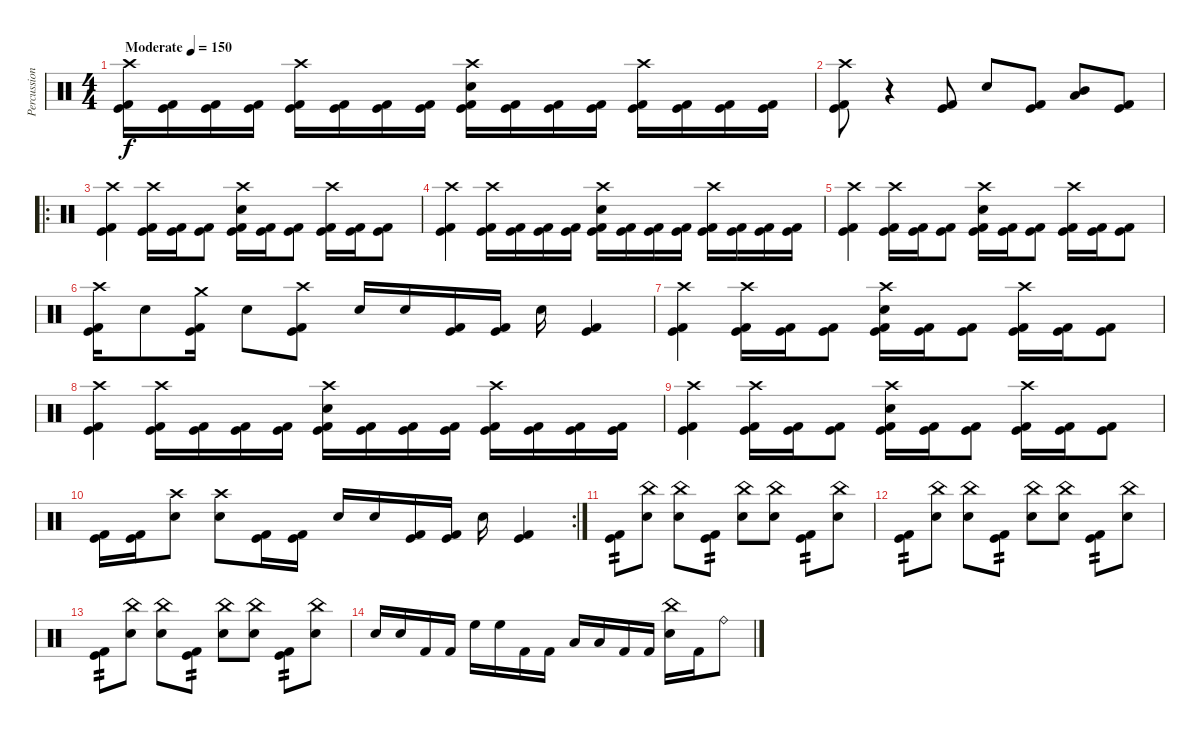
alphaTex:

\track ("Percussion" "Percussion") {instrument percussion}
\staff {score}
\articulation defaults
\ts (4 4)
\tempo (150 "Moderate")
\clef neutral
\ks c
("Crash high (hit)" "Kick (hit)" "Kick (hit) 2").16{dy f} ("Kick (hit)" "Kick (hit) 2").16 ("Kick (hit)" "Kick (hit) 2").16 ("Kick (hit)" "Kick (hit) 2").16 ("Crash high (hit)" "Kick (hit)" "Kick (hit) 2").16 ("Kick (hit)" "Kick (hit) 2").16 ("Kick (hit)" "Kick (hit) 2").16 ("Kick (hit)" "Kick (hit) 2").16 ("Crash high (hit)" "Snare (hit) 2" "Kick (hit)" "Kick (hit) 2").16 ("Kick (hit)" "Kick (hit) 2").16 ("Kick (hit)" "Kick (hit) 2").16 ("Kick (hit)" "Kick (hit) 2").16 ("Crash high (hit)" "Kick (hit)" "Kick (hit) 2").16 ("Kick (hit)" "Kick (hit) 2").16 ("Kick (hit)" "Kick (hit) 2").16 ("Kick (hit)" "Kick (hit) 2").16 |
("Crash high (hit)" "Kick (hit)" "Kick (hit) 2").8 r.4 ("Kick (hit)" "Kick (hit) 2").8 "Snare (hit) 2".8 ("Kick (hit)" "Kick (hit) 2").8 ("Mid Tom (hit)" "Low Tom (hit)").8 ("Kick (hit)" "Kick (hit) 2").8 |
\ro
("Crash high (hit)" "Kick (hit)" "Kick (hit) 2").4 ("Crash high (hit)" "Kick (hit)" "Kick (hit) 2").16 ("Kick (hit)" "Kick (hit) 2").16 ("Kick (hit)" "Kick (hit) 2").8 ("Crash high (hit)" "Snare (hit) 2" "Kick (hit)" "Kick (hit) 2").16 ("Kick (hit)" "Kick (hit) 2").16 ("Kick (hit)" "Kick (hit) 2").8 ("Crash high (hit)" "Kick (hit)" "Kick (hit) 2").16 ("Kick (hit)" "Kick (hit) 2").16 ("Kick (hit)" "Kick (hit) 2").8 |
("Crash high (hit)" "Kick (hit)" "Kick (hit) 2").4 ("Crash high (hit)" "Kick (hit)" "Kick (hit) 2").16 ("Kick (hit)" "Kick (hit) 2").16 ("Kick (hit)" "Kick (hit) 2").16 ("Kick (hit)" "Kick (hit) 2").16 ("Crash high (hit)" "Snare (hit) 2" "Kick (hit)" "Kick (hit) 2").16 ("Kick (hit)" "Kick (hit) 2").16 ("Kick (hit)" "Kick (hit) 2").16 ("Kick (hit)" "Kick (hit) 2").16 ("Crash high (hit)" "Kick (hit)" "Kick (hit) 2").16 ("Kick (hit)" "Kick (hit) 2").16 ("Kick (hit)" "Kick (hit) 2").16 ("Kick (hit)" "Kick (hit) 2").16 |
("Crash high (hit)" "Kick (hit)" "Kick (hit) 2").4 ("Crash high (hit)" "Kick (hit)" "Kick (hit) 2").16 ("Kick (hit)" "Kick (hit) 2").16 ("Kick (hit)" "Kick (hit) 2").8 ("Crash high (hit)" "Snare (hit) 2" "Kick (hit)" "Kick (hit) 2").16 ("Kick (hit)" "Kick (hit) 2").16 ("Kick (hit)" "Kick (hit) 2").8 ("Crash high (hit)" "Kick (hit)" "Kick (hit) 2").16 ("Kick (hit)" "Kick (hit) 2").16 ("Kick (hit)" "Kick (hit) 2").8 |
("Crash high (hit)" "Kick (hit)" "Kick (hit) 2").16 "Snare (hit) 2".8 ("Crash medium (hit)" "Kick (hit)" "Kick (hit) 2").16 "Snare (hit) 2".8 ("Crash high (hit)" "Kick (hit)" "Kick (hit) 2").8 "Snare (hit) 2".16 "Snare (hit) 2".16 ("Kick (hit) 2" "Kick (hit)").16 ("Kick (hit) 2" "Kick (hit)").16 "Snare (hit) 2".16 ("Kick (hit) 2" "Kick (hit)").4 |
("Crash high (hit)" "Kick (hit)" "Kick (hit) 2").4 ("Crash high (hit)" "Kick (hit)" "Kick (hit) 2").16 ("Kick (hit)" "Kick (hit) 2").16 ("Kick (hit)" "Kick (hit) 2").8 ("Crash high (hit)" "Snare (hit) 2" "Kick (hit)" "Kick (hit) 2").16 ("Kick (hit)" "Kick (hit) 2").16 ("Kick (hit)" "Kick (hit) 2").8 ("Crash high (hit)" "Kick (hit)" "Kick (hit) 2").16 ("Kick (hit)" "Kick (hit) 2").16 ("Kick (hit)" "Kick (hit) 2").8 |
("Crash high (hit)" "Kick (hit)" "Kick (hit) 2").4 ("Crash high (hit)" "Kick (hit)" "Kick (hit) 2").16 ("Kick (hit)" "Kick (hit) 2").16 ("Kick (hit)" "Kick (hit) 2").16 ("Kick (hit)" "Kick (hit) 2").16 ("Crash high (hit)" "Snare (hit) 2" "Kick (hit)" "Kick (hit) 2").16 ("Kick (hit)" "Kick (hit) 2").16 ("Kick (hit)" "Kick (hit) 2").16 ("Kick (hit)" "Kick (hit) 2").16 ("Crash high (hit)" "Kick (hit)" "Kick (hit) 2").16 ("Kick (hit)" "Kick (hit) 2").16 ("Kick (hit)" "Kick (hit) 2").16 ("Kick (hit)" "Kick (hit) 2").16 |
("Crash high (hit)" "Kick (hit)" "Kick (hit) 2").4 ("Crash high (hit)" "Kick (hit)" "Kick (hit) 2").16 ("Kick (hit)" "Kick (hit) 2").16 ("Kick (hit)" "Kick (hit) 2").8 ("Crash high (hit)" "Snare (hit) 2" "Kick (hit)" "Kick (hit) 2").16 ("Kick (hit)" "Kick (hit) 2").16 ("Kick (hit)" "Kick (hit) 2").8 ("Crash high (hit)" "Kick (hit)" "Kick (hit) 2").16 ("Kick (hit)" "Kick (hit) 2").16 ("Kick (hit)" "Kick (hit) 2").8 |
\rc 2
("Kick (hit)" "Kick (hit) 2").16 ("Kick (hit)" "Kick (hit) 2").16 ("Crash high (hit)" "Snare (hit) 2").8 ("Crash high (hit)" "Snare (hit) 2").8 ("Kick (hit)" "Kick (hit) 2").16 ("Kick (hit)" "Kick (hit) 2").16 "Snare (hit) 2".16 "Snare (hit) 2".16 ("Kick (hit)" "Kick (hit) 2").16 ("Kick (hit)" "Kick (hit) 2").16 "Snare (hit) 2".16 ("Kick (hit)" "Kick (hit) 2").4 |
("Kick (hit)" "Kick (hit) 2").8{tp 2} ("China (hit)" "Snare (hit) 2").8 ("China (hit)" "Snare (hit) 2").8 ("Kick (hit)" "Kick (hit) 2").8{tp 2} ("China (hit)" "Snare (hit) 2").8 ("China (hit)" "Snare (hit) 2").8 ("Kick (hit)" "Kick (hit) 2").8{tp 2} ("China (hit)" "Snare (hit) 2").8 |
("Kick (hit)" "Kick (hit) 2").8{tp 2} ("China (hit)" "Snare (hit) 2").8 ("China (hit)" "Snare (hit) 2").8 ("Kick (hit)" "Kick (hit) 2").8{tp 2} ("China (hit)" "Snare (hit) 2").8 ("China (hit)" "Snare (hit) 2").8 ("Kick (hit)" "Kick (hit) 2").8{tp 2} ("China (hit)" "Snare (hit) 2").8 |
("Kick (hit)" "Kick (hit) 2").8{tp 2} ("China (hit)" "Snare (hit) 2").8 ("China (hit)" "Snare (hit) 2").8 ("Kick (hit)" "Kick (hit) 2").8{tp 2} ("China (hit)" "Snare (hit) 2").8 ("China (hit)" "Snare (hit) 2").8 ("Kick (hit)" "Kick (hit) 2").8{tp 2} ("China (hit)" "Snare (hit) 2").8 |
"Snare (hit) 2".16 "Snare (hit) 2".16 "Kick (hit) 2".16 "Kick (hit) 2".16 "High Floor Tom (hit)".16 "High Floor Tom (hit)".16 "Kick (hit) 2".16 "Kick (hit) 2".16 "Low Tom (hit)".16 "Low Tom (hit)".16 "Kick (hit) 2".16 "Kick (hit) 2".16 ("China (hit)" "Snare (hit) 2").16 "Kick (hit) 2".16 "Ride (bell)".8
